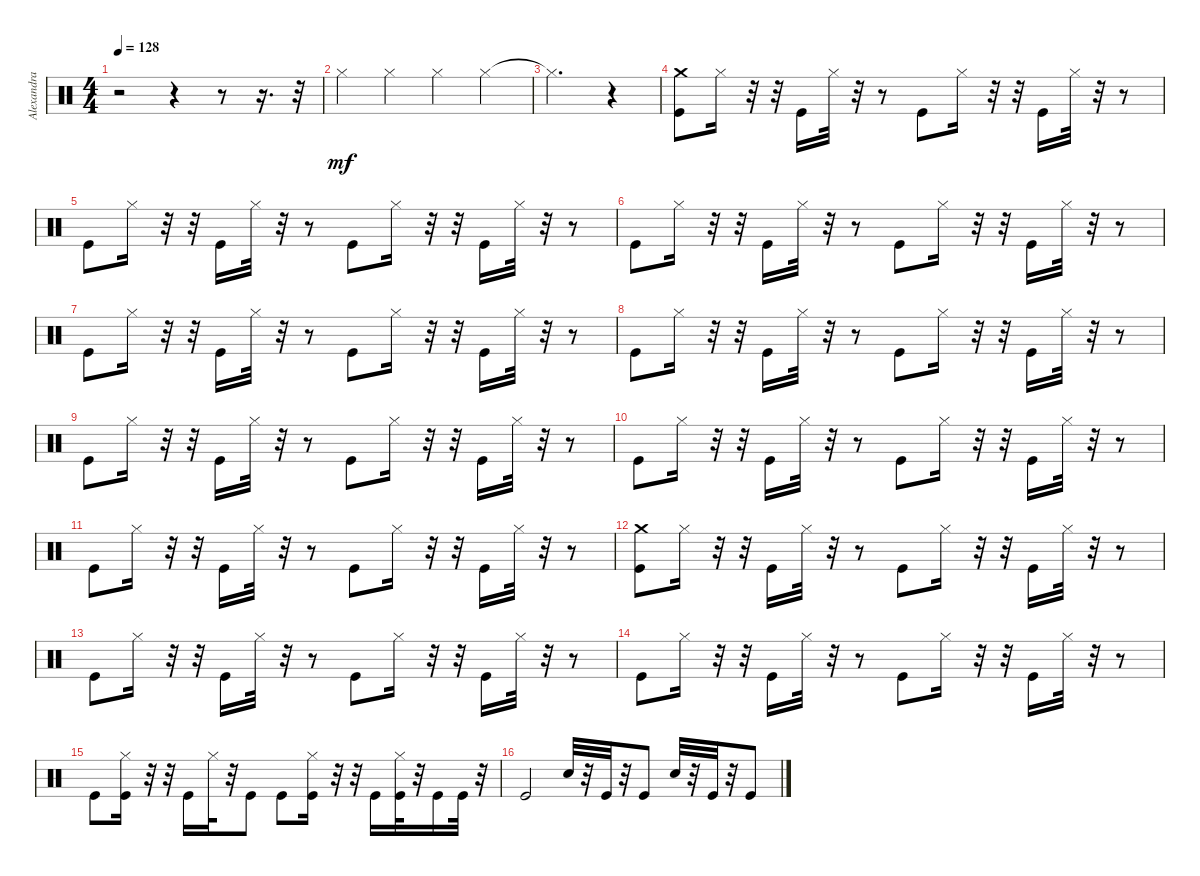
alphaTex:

\track ("Alexandra Stan - Mr Saxobeat" "Alexandra ") {instrument percussion}
\staff {score}
\articulation defaults
\ts (4 4)
\tempo 128
\clef neutral
\ks c
r.2{dy mf} r.4 r.8 r.16{d} r.32 |
"Hi-Hat (closed)".4 "Hi-Hat (closed)".4 "Hi-Hat (closed)".4 "Hi-Hat (closed)".4 |
"Hi-Hat (closed)"{t}.2{d} r.4 |
("Kick (hit)" "Crash medium (hit)").8 "Hi-Hat (closed)".16 r.32 r.32 "Kick (hit)".16 "Hi-Hat (closed)".32 r.32 r.8 "Kick (hit)".8 "Hi-Hat (closed)".16 r.32 r.32 "Kick (hit)".16 "Hi-Hat (closed)".32 r.32 r.8 |
"Kick (hit)".8 "Hi-Hat (closed)".16 r.32 r.32 "Kick (hit)".16 "Hi-Hat (closed)".32 r.32 r.8 "Kick (hit)".8 "Hi-Hat (closed)".16 r.32 r.32 "Kick (hit)".16 "Hi-Hat (closed)".32 r.32 r.8 |
"Kick (hit)".8 "Hi-Hat (closed)".16 r.32 r.32 "Kick (hit)".16 "Hi-Hat (closed)".32 r.32 r.8 "Kick (hit)".8 "Hi-Hat (closed)".16 r.32 r.32 "Kick (hit)".16 "Hi-Hat (closed)".32 r.32 r.8 |
"Kick (hit)".8 "Hi-Hat (closed)".16 r.32 r.32 "Kick (hit)".16 "Hi-Hat (closed)".32 r.32 r.8 "Kick (hit)".8 "Hi-Hat (closed)".16 r.32 r.32 "Kick (hit)".16 "Hi-Hat (closed)".32 r.32 r.8 |
"Kick (hit)".8 "Hi-Hat (closed)".16 r.32 r.32 "Kick (hit)".16 "Hi-Hat (closed)".32 r.32 r.8 "Kick (hit)".8 "Hi-Hat (closed)".16 r.32 r.32 "Kick (hit)".16 "Hi-Hat (closed)".32 r.32 r.8 |
"Kick (hit)".8 "Hi-Hat (closed)".16 r.32 r.32 "Kick (hit)".16 "Hi-Hat (closed)".32 r.32 r.8 "Kick (hit)".8 "Hi-Hat (closed)".16 r.32 r.32 "Kick (hit)".16 "Hi-Hat (closed)".32 r.32 r.8 |
"Kick (hit)".8 "Hi-Hat (closed)".16 r.32 r.32 "Kick (hit)".16 "Hi-Hat (closed)".32 r.32 r.8 "Kick (hit)".8 "Hi-Hat (closed)".16 r.32 r.32 "Kick (hit)".16 "Hi-Hat (closed)".32 r.32 r.8 |
"Kick (hit)".8 "Hi-Hat (closed)".16 r.32 r.32 "Kick (hit)".16 "Hi-Hat (closed)".32 r.32 r.8 "Kick (hit)".8 "Hi-Hat (closed)".16 r.32 r.32 "Kick (hit)".16 "Hi-Hat (closed)".32 r.32 r.8 |
("Kick (hit)" "Crash medium (hit)").8 "Hi-Hat (closed)".16 r.32 r.32 "Kick (hit)".16 "Hi-Hat (closed)".32 r.32 r.8 "Kick (hit)".8 "Hi-Hat (closed)".16 r.32 r.32 "Kick (hit)".16 "Hi-Hat (closed)".32 r.32 r.8 |
"Kick (hit)".8 "Hi-Hat (closed)".16 r.32 r.32 "Kick (hit)".16 "Hi-Hat (closed)".32 r.32 r.8 "Kick (hit)".8 "Hi-Hat (closed)".16 r.32 r.32 "Kick (hit)".16 "Hi-Hat (closed)".32 r.32 r.8 |
"Kick (hit)".8 "Hi-Hat (closed)".16 r.32 r.32 "Kick (hit)".16 "Hi-Hat (closed)".32 r.32 r.8 "Kick (hit)".8 "Hi-Hat (closed)".16 r.32 r.32 "Kick (hit)".16 "Hi-Hat (closed)".32 r.32 r.8 |
"Kick (hit)".8 ("Kick (hit)" "Hi-Hat (closed)").16 r.32 r.32 "Kick (hit)".16 "Hi-Hat (closed)".32 r.32 "Kick (hit)".8 "Kick (hit)".8 ("Kick (hit)" "Hi-Hat (closed)").16 r.32 r.32 "Kick (hit)".16 ("Kick (hit)" "Hi-Hat (closed)").32 r.32 "Kick (hit)".16 "Kick (hit)".32 r.32 |
"Kick (hit)".2 "Snare (hit) 2".32 r.32 "Kick (hit)".32 r.32 "Kick (hit)".8 "Snare (hit) 2".32 r.32 "Kick (hit)".32 r.32 "Kick (hit)".8
